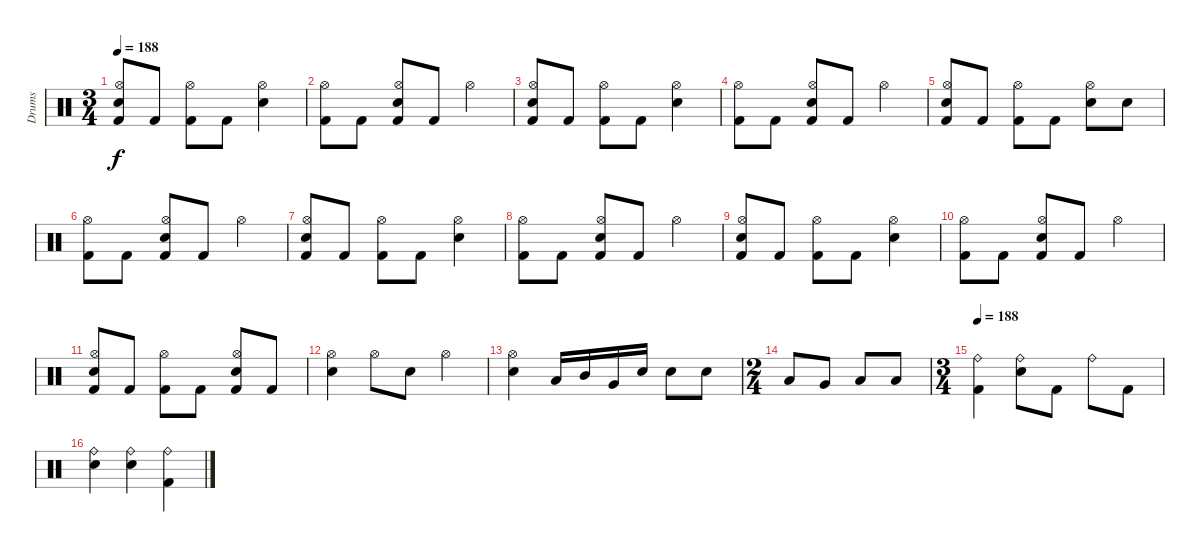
\track ("Drums" "Drums") {instrument percussion}
\staff {score}
\articulation defaults
\ts (3 4)
\tempo 188
\clef neutral
\ks c
("Electric Snare (hit)" "Hi-Hat (open)" "Kick (hit) 2").8{dy f} "Kick (hit) 2".8 ("Hi-Hat (open)" "Kick (hit) 2").8 "Kick (hit) 2".8 ("Electric Snare (hit)" "Hi-Hat (open)").4 |
("Hi-Hat (open)" "Kick (hit) 2").8 "Kick (hit) 2".8 ("Electric Snare (hit)" "Hi-Hat (open)" "Kick (hit) 2").8 "Kick (hit) 2".8 "Hi-Hat (open)".4 |
("Electric Snare (hit)" "Hi-Hat (open)" "Kick (hit) 2").8 "Kick (hit) 2".8 ("Hi-Hat (open)" "Kick (hit) 2").8 "Kick (hit) 2".8 ("Electric Snare (hit)" "Hi-Hat (open)").4 |
("Hi-Hat (open)" "Kick (hit) 2").8 "Kick (hit) 2".8 ("Electric Snare (hit)" "Hi-Hat (open)" "Kick (hit) 2").8 "Kick (hit) 2".8 "Hi-Hat (open)".4 |
("Electric Snare (hit)" "Hi-Hat (open)" "Kick (hit) 2").8 "Kick (hit) 2".8 ("Hi-Hat (open)" "Kick (hit) 2").8 "Kick (hit) 2".8 ("Electric Snare (hit)" "Hi-Hat (open)").8 "Electric Snare (hit)".8 |
("Hi-Hat (open)" "Kick (hit) 2").8 "Kick (hit) 2".8 ("Electric Snare (hit)" "Hi-Hat (open)" "Kick (hit) 2").8 "Kick (hit) 2".8 "Hi-Hat (open)".4 |
("Electric Snare (hit)" "Hi-Hat (open)" "Kick (hit) 2").8 "Kick (hit) 2".8 ("Hi-Hat (open)" "Kick (hit) 2").8 "Kick (hit) 2".8 ("Electric Snare (hit)" "Hi-Hat (open)").4 |
("Hi-Hat (open)" "Kick (hit) 2").8 "Kick (hit) 2".8 ("Electric Snare (hit)" "Hi-Hat (open)" "Kick (hit) 2").8 "Kick (hit) 2".8 "Hi-Hat (open)".4 |
("Electric Snare (hit)" "Hi-Hat (open)" "Kick (hit) 2").8 "Kick (hit) 2".8 ("Hi-Hat (open)" "Kick (hit) 2").8 "Kick (hit) 2".8 ("Electric Snare (hit)" "Hi-Hat (open)").4 |
("Hi-Hat (open)" "Kick (hit) 2").8 "Kick (hit) 2".8 ("Electric Snare (hit)" "Hi-Hat (open)" "Kick (hit) 2").8 "Kick (hit) 2".8 "Hi-Hat (open)".4 |
("Electric Snare (hit)" "Hi-Hat (open)" "Kick (hit) 2").8 "Kick (hit) 2".8 ("Hi-Hat (open)" "Kick (hit) 2").8 "Kick (hit) 2".8 ("Electric Snare (hit)" "Hi-Hat (open)" "Kick (hit) 2").8 "Kick (hit) 2".8 |
("Electric Snare (hit)" "Hi-Hat (open)").4 "Hi-Hat (open)".8 "Electric Snare (hit)".8 "Hi-Hat (open)".4 |
("Electric Snare (hit)" "Hi-Hat (open)").4 "Low Tom (hit)".16 "Mid Tom (hit)".16 "Very Low Tom (hit)".16 "Electric Snare (hit)".16 "Electric Snare (hit)".8 "Electric Snare (hit)".8 |
\ts (2 4)
"Low Floor Tom (hit)".8 "Very Low Tom (hit)".8 "Low Tom (hit)".8 "Low Tom (hit)".8 |
\ts (3 4)
\tempo 188
("Ride (bell)" "Kick (hit) 2").4 ("Electric Snare (hit)" "Ride (bell)").8 "Kick (hit) 2".8 "Ride (bell)".8 "Kick (hit) 2".8 |
("Electric Snare (hit)" "Ride (bell)").4 ("Electric Snare (hit)" "Ride (bell)").4 ("Ride (bell)" "Kick (hit) 2").4
